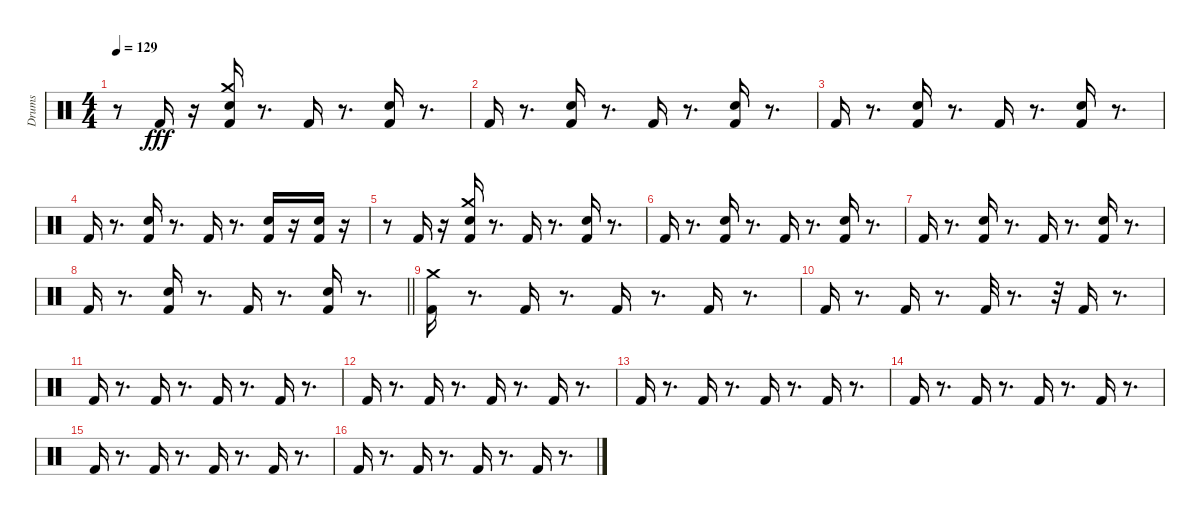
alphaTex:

\track ("Drums" "Drums") {instrument percussion}
\staff {score}
\articulation defaults
\ts (4 4)
\tempo 129
\clef neutral
\ks c
r.8{dy fff} "Kick (hit) 2".16 r.16 ("Crash medium (hit)" "Kick (hit) 2" "Electric Snare (hit)").16 r.8{d} "Kick (hit) 2".16 r.8{d} ("Kick (hit) 2" "Electric Snare (hit)").16 r.8{d} |
"Kick (hit) 2".16 r.8{d} ("Kick (hit) 2" "Electric Snare (hit)").16 r.8{d} "Kick (hit) 2".16 r.8{d} ("Kick (hit) 2" "Electric Snare (hit)").16 r.8{d} |
"Kick (hit) 2".16 r.8{d} ("Kick (hit) 2" "Electric Snare (hit)").16 r.8{d} "Kick (hit) 2".16 r.8{d} ("Kick (hit) 2" "Electric Snare (hit)").16 r.8{d} |
"Kick (hit) 2".16 r.8{d} ("Kick (hit) 2" "Electric Snare (hit)").16 r.8{d} "Kick (hit) 2".16 r.8{d} ("Kick (hit) 2" "Electric Snare (hit)").16 r.16 ("Kick (hit) 2" "Electric Snare (hit)").16 r.16 |
r.8 "Kick (hit) 2".16 r.16 ("Crash medium (hit)" "Kick (hit) 2" "Electric Snare (hit)").16 r.8{d} "Kick (hit) 2".16 r.8{d} ("Kick (hit) 2" "Electric Snare (hit)").16 r.8{d} |
"Kick (hit) 2".16 r.8{d} ("Kick (hit) 2" "Electric Snare (hit)").16 r.8{d} "Kick (hit) 2".16 r.8{d} ("Kick (hit) 2" "Electric Snare (hit)").16 r.8{d} |
"Kick (hit) 2".16 r.8{d} ("Kick (hit) 2" "Electric Snare (hit)").16 r.8{d} "Kick (hit) 2".16 r.8{d} ("Kick (hit) 2" "Electric Snare (hit)").16 r.8{d} |
\barLineRight lightlight "Kick (hit) 2".16
r.8{d} ("Kick (hit) 2" "Electric Snare (hit)").16 r.8{d} "Kick (hit) 2".16 r.8{d} ("Kick (hit) 2" "Electric Snare (hit)").16 r.8{d} |
("Kick (hit) 2" "Crash medium (hit)").16 r.8{d} "Kick (hit) 2".16 r.8{d} "Kick (hit) 2".16 r.8{d} "Kick (hit) 2".16 r.8{d} |
"Kick (hit) 2".16 r.8{d} "Kick (hit) 2".16 r.8{d} "Kick (hit) 2".32 r.8{d} r.32 "Kick (hit) 2".16 r.8{d} |
"Kick (hit) 2".16 r.8{d} "Kick (hit) 2".16 r.8{d} "Kick (hit) 2".16 r.8{d} "Kick (hit) 2".16 r.8{d} |
"Kick (hit) 2".16 r.8{d} "Kick (hit) 2".16 r.8{d} "Kick (hit) 2".16 r.8{d} "Kick (hit) 2".16 r.8{d} |
"Kick (hit) 2".16 r.8{d} "Kick (hit) 2".16 r.8{d} "Kick (hit) 2".16 r.8{d} "Kick (hit) 2".16 r.8{d} |
"Kick (hit) 2".16 r.8{d} "Kick (hit) 2".16 r.8{d} "Kick (hit) 2".16 r.8{d} "Kick (hit) 2".16 r.8{d} |
"Kick (hit) 2".16 r.8{d} "Kick (hit) 2".16 r.8{d} "Kick (hit) 2".16 r.8{d} "Kick (hit) 2".16 r.8{d} |
"Kick (hit) 2".16 r.8{d} "Kick (hit) 2".16 r.8{d} "Kick (hit) 2".16 r.8{d} "Kick (hit) 2".16 r.8{d}
